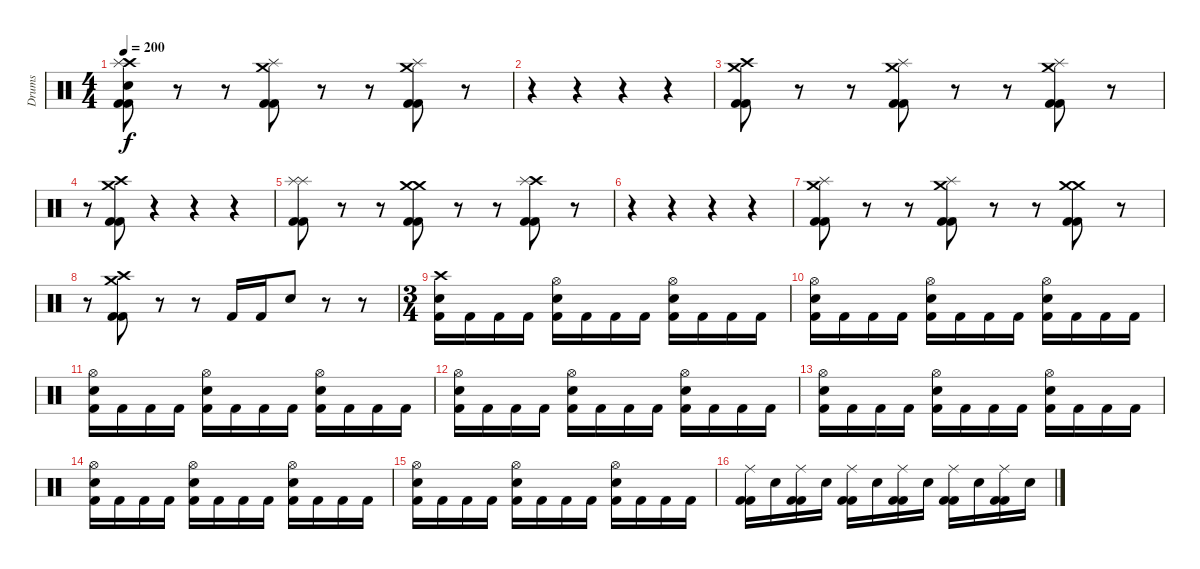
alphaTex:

\track ("Drums" "Drums") {instrument percussion}
\staff {score}
\articulation defaults
\ts (4 4)
\tempo 200
\clef neutral
\ks c
("Crash high (hit)" "Splash (hit)" "Snare (hit)" "Kick (hit) 2" "Kick (hit) 2").8{dy f} r.8 r.8 ("Crash medium (hit)" "Splash (hit)" "Kick (hit) 2" "Kick (hit) 2").8 r.8 r.8 ("Crash medium (hit)" "Splash (hit)" "Kick (hit) 2" "Kick (hit) 2").8 r.8 |
r.4 r.4 r.4 r.4 |
("Crash high (hit)" "Crash medium (hit)" "Kick (hit) 2" "Kick (hit) 2").8 r.8 r.8 ("Crash medium (hit)" "Splash (hit)" "Kick (hit) 2" "Kick (hit) 2").8 r.8 r.8 ("Crash medium (hit)" "Splash (hit)" "Kick (hit) 2" "Kick (hit) 2").8 r.8 |
r.8 ("Crash high (hit)" "Crash medium (hit)" "Kick (hit) 2" "Kick (hit) 2").8 r.4 r.4 r.4 |
("Splash (hit)" "Splash (hit)" "Kick (hit) 2" "Kick (hit) 2").8 r.8 r.8 ("Crash medium (hit)" "Crash medium (hit)" "Kick (hit) 2" "Kick (hit) 2").8 r.8 r.8 ("Crash high (hit)" "Splash (hit)" "Kick (hit) 2" "Kick (hit) 2").8 r.8 |
r.4 r.4 r.4 r.4 |
("Crash medium (hit)" "Splash (hit)" "Kick (hit) 2" "Kick (hit) 2").8 r.8 r.8 ("Crash medium (hit)" "Splash (hit)" "Kick (hit) 2" "Kick (hit) 2").8 r.8 r.8 ("Crash medium (hit)" "Crash medium (hit)" "Kick (hit) 2" "Kick (hit) 2").8 r.8 |
r.8 ("Crash medium (hit)" "Crash high (hit)" "Kick (hit) 2" "Kick (hit) 2").8 r.8 r.8 "Kick (hit) 2".16 "Kick (hit) 2".16 "Snare (hit) 2".8 r.8 r.8 |
\ts (3 4)
("Crash high (hit)" "Snare (hit) 2" "Kick (hit) 2").16 "Kick (hit) 2".16 "Kick (hit) 2".16 "Kick (hit) 2".16 ("Hi-Hat (open)" "Snare (hit) 2" "Kick (hit) 2").16 "Kick (hit) 2".16 "Kick (hit) 2".16 "Kick (hit) 2".16 ("Hi-Hat (open)" "Snare (hit) 2" "Kick (hit) 2").16 "Kick (hit) 2".16 "Kick (hit) 2".16 "Kick (hit) 2".16 |
("Hi-Hat (open)" "Snare (hit) 2" "Kick (hit) 2").16 "Kick (hit) 2".16 "Kick (hit) 2".16 "Kick (hit) 2".16 ("Hi-Hat (open)" "Snare (hit) 2" "Kick (hit) 2").16 "Kick (hit) 2".16 "Kick (hit) 2".16 "Kick (hit) 2".16 ("Hi-Hat (open)" "Snare (hit) 2" "Kick (hit) 2").16 "Kick (hit) 2".16 "Kick (hit) 2".16 "Kick (hit) 2".16 |
("Hi-Hat (open)" "Snare (hit) 2" "Kick (hit) 2").16 "Kick (hit) 2".16 "Kick (hit) 2".16 "Kick (hit) 2".16 ("Hi-Hat (open)" "Snare (hit) 2" "Kick (hit) 2").16 "Kick (hit) 2".16 "Kick (hit) 2".16 "Kick (hit) 2".16 ("Hi-Hat (open)" "Snare (hit) 2" "Kick (hit) 2").16 "Kick (hit) 2".16 "Kick (hit) 2".16 "Kick (hit) 2".16 |
("Hi-Hat (open)" "Snare (hit) 2" "Kick (hit) 2").16 "Kick (hit) 2".16 "Kick (hit) 2".16 "Kick (hit) 2".16 ("Hi-Hat (open)" "Snare (hit) 2" "Kick (hit) 2").16 "Kick (hit) 2".16 "Kick (hit) 2".16 "Kick (hit) 2".16 ("Hi-Hat (open)" "Snare (hit) 2" "Kick (hit) 2").16 "Kick (hit) 2".16 "Kick (hit) 2".16 "Kick (hit) 2".16 |
("Hi-Hat (open)" "Snare (hit) 2" "Kick (hit) 2").16 "Kick (hit) 2".16 "Kick (hit) 2".16 "Kick (hit) 2".16 ("Hi-Hat (open)" "Snare (hit) 2" "Kick (hit) 2").16 "Kick (hit) 2".16 "Kick (hit) 2".16 "Kick (hit) 2".16 ("Hi-Hat (open)" "Snare (hit) 2" "Kick (hit) 2").16 "Kick (hit) 2".16 "Kick (hit) 2".16 "Kick (hit) 2".16 |
("Hi-Hat (open)" "Snare (hit) 2" "Kick (hit) 2").16 "Kick (hit) 2".16 "Kick (hit) 2".16 "Kick (hit) 2".16 ("Hi-Hat (open)" "Snare (hit) 2" "Kick (hit) 2").16 "Kick (hit) 2".16 "Kick (hit) 2".16 "Kick (hit) 2".16 ("Hi-Hat (open)" "Snare (hit) 2" "Kick (hit) 2").16 "Kick (hit) 2".16 "Kick (hit) 2".16 "Kick (hit) 2".16 |
("Hi-Hat (open)" "Snare (hit) 2" "Kick (hit) 2").16 "Kick (hit) 2".16 "Kick (hit) 2".16 "Kick (hit) 2".16 ("Hi-Hat (open)" "Snare (hit) 2" "Kick (hit) 2").16 "Kick (hit) 2".16 "Kick (hit) 2".16 "Kick (hit) 2".16 ("Hi-Hat (open)" "Snare (hit) 2" "Kick (hit) 2").16 "Kick (hit) 2".16 "Kick (hit) 2".16 "Kick (hit) 2".16 |
("Ride (middle)" "Kick (hit) 2" "Kick (hit) 2").16 "Snare (hit) 2".16 ("Ride (middle)" "Kick (hit) 2" "Kick (hit) 2").16 "Snare (hit) 2".16 ("Ride (middle)" "Kick (hit) 2" "Kick (hit) 2").16 "Snare (hit) 2".16 ("Ride (middle)" "Kick (hit) 2" "Kick (hit) 2").16 "Snare (hit) 2".16 ("Ride (middle)" "Kick (hit) 2" "Kick (hit) 2").16 "Snare (hit) 2".16 ("Ride (middle)" "Kick (hit) 2" "Kick (hit) 2").16 "Snare (hit) 2".16
